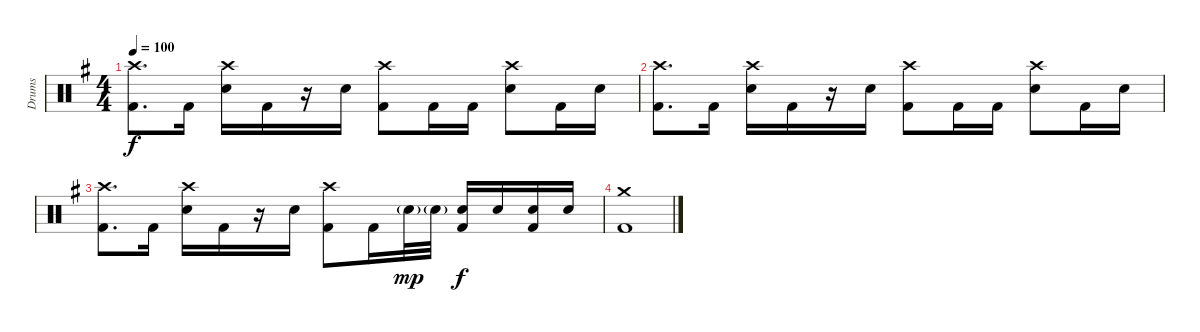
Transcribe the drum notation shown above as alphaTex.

\track ("Drums" "Drums") {instrument percussion}
\staff {score}
\articulation defaults
\ts (4 4)
\tempo 100
\clef neutral
\ks g
("Kick (hit) 2" "Crash high (hit)").8{d dy f} "Kick (hit) 2".16 ("Electric Snare (hit)" "Crash high (hit)").16 "Kick (hit) 2".16 r.16 "Electric Snare (hit)".16 ("Kick (hit) 2" "Crash high (hit)").8 "Kick (hit) 2".16 "Kick (hit) 2".16 ("Electric Snare (hit)" "Crash high (hit)").8 "Kick (hit) 2".16 "Electric Snare (hit)".16 |
("Kick (hit) 2" "Crash high (hit)").8{d} "Kick (hit) 2".16 ("Electric Snare (hit)" "Crash high (hit)").16 "Kick (hit) 2".16 r.16 "Electric Snare (hit)".16 ("Kick (hit) 2" "Crash high (hit)").8 "Kick (hit) 2".16 "Kick (hit) 2".16 ("Electric Snare (hit)" "Crash high (hit)").8 "Kick (hit) 2".16 "Electric Snare (hit)".16 |
("Kick (hit) 2" "Crash high (hit)").8{d} "Kick (hit) 2".16 ("Electric Snare (hit)" "Crash high (hit)").16 "Kick (hit) 2".16 r.16 "Electric Snare (hit)".16 ("Kick (hit) 2" "Crash high (hit)").8 "Kick (hit) 2".16 "Electric Snare (hit)"{g}.32{dy mp} "Electric Snare (hit)"{g}.32 ("Kick (hit) 2" "Electric Snare (hit)").16{dy f} "Electric Snare (hit)".16 ("Kick (hit) 2" "Electric Snare (hit)").16 "Electric Snare (hit)".16 |
("Crash medium (hit)" "Kick (hit) 2").1
